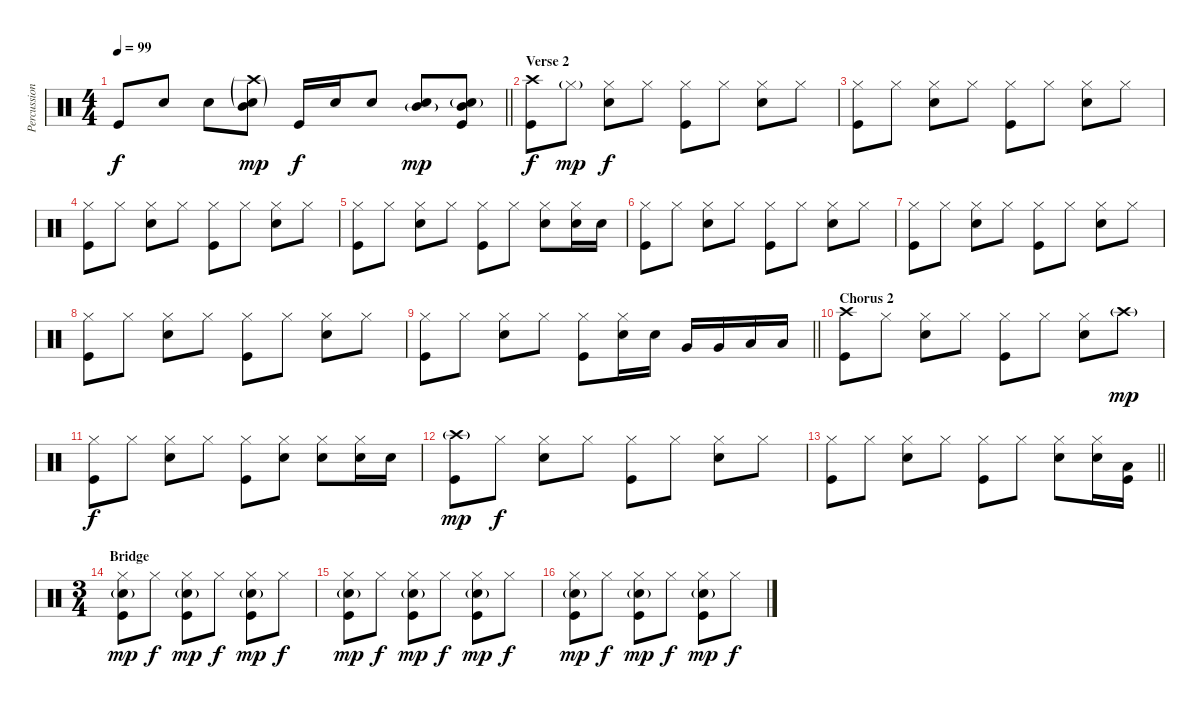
\track ("Percussion" "Percussion") {instrument percussion}
\staff {score}
\articulation defaults
\ts (4 4)
\tempo 99
\clef neutral
\barLineRight lightlight
\ks c "Kick (hit)".8{dy f} "Snare (hit) 2".8 "Snare (hit) 2".8
("Crash high (hit)"{g} "Mid Tom (hit)" "Snare (hit) 2"{g}).8{dy mp} "Kick (hit)".16{dy f} "Snare (hit) 2".16 "Snare (hit) 2".8 ("Mid Tom (hit)"{g} "Snare (hit) 2").8{dy mp} ("Mid Tom (hit)" "Snare (hit) 2"{g} "Kick (hit)").8 |
\section ("" "Verse 2")
("Crash high (hit)" "Kick (hit)").8{dy f} "Hi-Hat (closed)"{g}.8{dy mp} ("Hi-Hat (closed)" "Snare (hit) 2").8{dy f} "Hi-Hat (closed)".8 ("Hi-Hat (closed)" "Kick (hit)").8 "Hi-Hat (closed)".8 ("Hi-Hat (closed)" "Snare (hit) 2").8 "Hi-Hat (closed)".8 |
("Hi-Hat (closed)" "Kick (hit)").8 "Hi-Hat (closed)".8 ("Hi-Hat (closed)" "Snare (hit) 2").8 "Hi-Hat (closed)".8 ("Hi-Hat (closed)" "Kick (hit)").8 "Hi-Hat (closed)".8 ("Hi-Hat (closed)" "Snare (hit) 2").8 "Hi-Hat (closed)".8 |
("Hi-Hat (closed)" "Kick (hit)").8 "Hi-Hat (closed)".8 ("Hi-Hat (closed)" "Snare (hit) 2").8 "Hi-Hat (closed)".8 ("Hi-Hat (closed)" "Kick (hit)").8 "Hi-Hat (closed)".8 ("Hi-Hat (closed)" "Snare (hit) 2").8 "Hi-Hat (closed)".8 |
("Hi-Hat (closed)" "Kick (hit)").8 "Hi-Hat (closed)".8 ("Hi-Hat (closed)" "Snare (hit) 2").8 "Hi-Hat (closed)".8 ("Hi-Hat (closed)" "Kick (hit)").8 "Hi-Hat (closed)".8 ("Hi-Hat (closed)" "Snare (hit) 2").8 ("Hi-Hat (closed)" "Snare (hit) 2").16 "Snare (hit) 2".16 |
("Hi-Hat (closed)" "Kick (hit)").8 "Hi-Hat (closed)".8 ("Hi-Hat (closed)" "Snare (hit) 2").8 "Hi-Hat (closed)".8 ("Hi-Hat (closed)" "Kick (hit)").8 "Hi-Hat (closed)".8 ("Hi-Hat (closed)" "Snare (hit) 2").8 "Hi-Hat (closed)".8 |
("Hi-Hat (closed)" "Kick (hit)").8 "Hi-Hat (closed)".8 ("Hi-Hat (closed)" "Snare (hit) 2").8 "Hi-Hat (closed)".8 ("Hi-Hat (closed)" "Kick (hit)").8 "Hi-Hat (closed)".8 ("Hi-Hat (closed)" "Snare (hit) 2").8 "Hi-Hat (closed)".8 |
("Hi-Hat (closed)" "Kick (hit)").8 "Hi-Hat (closed)".8 ("Hi-Hat (closed)" "Snare (hit) 2").8 "Hi-Hat (closed)".8 ("Hi-Hat (closed)" "Kick (hit)").8 "Hi-Hat (closed)".8 ("Hi-Hat (closed)" "Snare (hit) 2").8 "Hi-Hat (closed)".8 |
\barLineRight lightlight
("Hi-Hat (closed)" "Kick (hit)").8 "Hi-Hat (closed)".8 ("Hi-Hat (closed)" "Snare (hit) 2").8 "Hi-Hat (closed)".8 ("Hi-Hat (closed)" "Kick (hit)").8 ("Hi-Hat (closed)" "Snare (hit) 2").16 "Snare (hit) 2".16 "Very Low Tom (hit)".16 "Very Low Tom (hit)".16 "Low Tom (hit)".16 "Low Tom (hit)".16 |
\section ("" "Chorus 2")
("Crash high (hit)" "Kick (hit)").8 "Hi-Hat (closed)".8 ("Hi-Hat (closed)" "Snare (hit) 2").8 "Hi-Hat (closed)".8 ("Hi-Hat (closed)" "Kick (hit)").8 "Hi-Hat (closed)".8 ("Hi-Hat (closed)" "Snare (hit) 2").8 "Crash high (hit)"{g}.8{dy mp} |
("Hi-Hat (closed)" "Kick (hit)").8{dy f} "Hi-Hat (closed)".8 ("Hi-Hat (closed)" "Snare (hit) 2").8 "Hi-Hat (closed)".8 ("Hi-Hat (closed)" "Kick (hit)").8 ("Hi-Hat (closed)" "Snare (hit) 2").8 ("Hi-Hat (closed)" "Snare (hit) 2").8 ("Hi-Hat (closed)" "Snare (hit) 2").16 "Snare (hit) 2".16 |
("Crash high (hit)"{g} "Kick (hit)").8{dy mp} "Hi-Hat (closed)".8{dy f} ("Hi-Hat (closed)" "Snare (hit) 2").8 "Hi-Hat (closed)".8 ("Hi-Hat (closed)" "Kick (hit)").8 "Hi-Hat (closed)".8 ("Hi-Hat (closed)" "Snare (hit) 2").8 "Hi-Hat (closed)".8 |
\barLineRight lightlight
("Hi-Hat (closed)" "Kick (hit)").8 "Hi-Hat (closed)".8 ("Hi-Hat (closed)" "Snare (hit) 2").8 "Hi-Hat (closed)".8 ("Hi-Hat (closed)" "Kick (hit)").8 "Hi-Hat (closed)".8 ("Hi-Hat (closed)" "Snare (hit) 2").8 ("Hi-Hat (closed)" "Snare (hit) 2").16 ("Low Tom (hit)" "Kick (hit)").16 |
\ts (3 4)
\section ("" "Bridge")
("Hi-Hat (closed)" "Snare (hit) 2"{g} "Kick (hit)").8{dy mp} "Hi-Hat (closed)".8{dy f} ("Hi-Hat (closed)" "Snare (hit) 2"{g} "Kick (hit)").8{dy mp} "Hi-Hat (closed)".8{dy f} ("Hi-Hat (closed)" "Snare (hit) 2"{g} "Kick (hit)").8{dy mp} "Hi-Hat (closed)".8{dy f} |
("Hi-Hat (closed)" "Snare (hit) 2"{g} "Kick (hit)").8{dy mp} "Hi-Hat (closed)".8{dy f} ("Hi-Hat (closed)" "Snare (hit) 2"{g} "Kick (hit)").8{dy mp} "Hi-Hat (closed)".8{dy f} ("Hi-Hat (closed)" "Snare (hit) 2"{g} "Kick (hit)").8{dy mp} "Hi-Hat (closed)".8{dy f} |
("Hi-Hat (closed)" "Snare (hit) 2"{g} "Kick (hit)").8{dy mp} "Hi-Hat (closed)".8{dy f} ("Hi-Hat (closed)" "Snare (hit) 2"{g} "Kick (hit)").8{dy mp} "Hi-Hat (closed)".8{dy f} ("Hi-Hat (closed)" "Snare (hit) 2"{g} "Kick (hit)").8{dy mp} "Hi-Hat (closed)".8{dy f}
